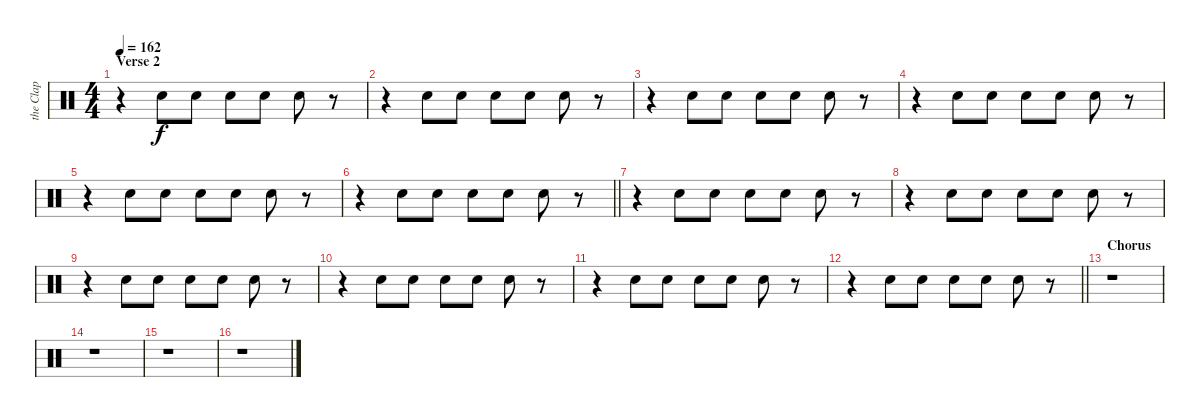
\track ("the Clap" "the Clap") {instrument percussion}
\staff {score}
\articulation defaults
\ts (4 4)
\section ("" "Verse 2")
\tempo 162
\clef neutral
\ks c
r.4{dy f} "Hand Clap (hit)".8 "Hand Clap (hit)".8 "Hand Clap (hit)".8 "Hand Clap (hit)".8 "Hand Clap (hit)".8 r.8 |
r.4 "Hand Clap (hit)".8 "Hand Clap (hit)".8 "Hand Clap (hit)".8 "Hand Clap (hit)".8 "Hand Clap (hit)".8 r.8 |
r.4 "Hand Clap (hit)".8 "Hand Clap (hit)".8 "Hand Clap (hit)".8 "Hand Clap (hit)".8 "Hand Clap (hit)".8 r.8 |
r.4 "Hand Clap (hit)".8 "Hand Clap (hit)".8 "Hand Clap (hit)".8 "Hand Clap (hit)".8 "Hand Clap (hit)".8 r.8 |
r.4 "Hand Clap (hit)".8 "Hand Clap (hit)".8 "Hand Clap (hit)".8 "Hand Clap (hit)".8 "Hand Clap (hit)".8 r.8 |
\barLineRight lightlight
r.4 "Hand Clap (hit)".8 "Hand Clap (hit)".8 "Hand Clap (hit)".8 "Hand Clap (hit)".8 "Hand Clap (hit)".8 r.8 |
r.4 "Hand Clap (hit)".8 "Hand Clap (hit)".8 "Hand Clap (hit)".8 "Hand Clap (hit)".8 "Hand Clap (hit)".8 r.8 |
r.4 "Hand Clap (hit)".8 "Hand Clap (hit)".8 "Hand Clap (hit)".8 "Hand Clap (hit)".8 "Hand Clap (hit)".8 r.8 |
r.4 "Hand Clap (hit)".8 "Hand Clap (hit)".8 "Hand Clap (hit)".8 "Hand Clap (hit)".8 "Hand Clap (hit)".8 r.8 |
r.4 "Hand Clap (hit)".8 "Hand Clap (hit)".8 "Hand Clap (hit)".8 "Hand Clap (hit)".8 "Hand Clap (hit)".8 r.8 |
r.4 "Hand Clap (hit)".8 "Hand Clap (hit)".8 "Hand Clap (hit)".8 "Hand Clap (hit)".8 "Hand Clap (hit)".8 r.8 |
\barLineRight lightlight
r.4 "Hand Clap (hit)".8 "Hand Clap (hit)".8 "Hand Clap (hit)".8 "Hand Clap (hit)".8 "Hand Clap (hit)".8 r.8 |
\section ("" "Chorus")
r.1 |
r.1 |
r.1 |
r.1
